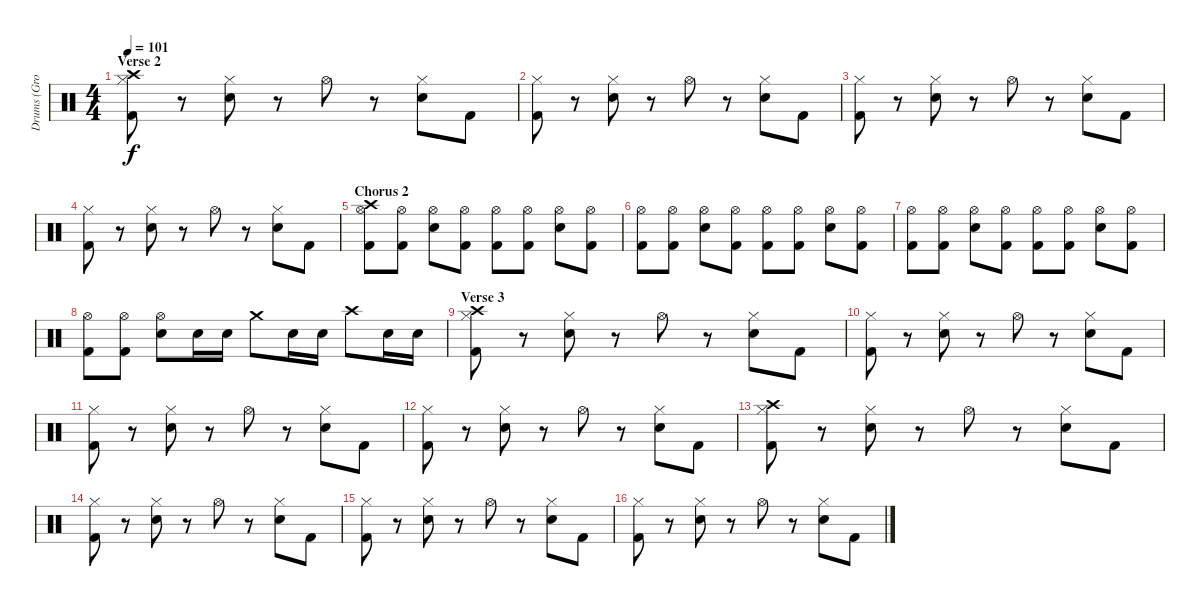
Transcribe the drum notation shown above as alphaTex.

\track ("Drums (Grohl)" "Drums (Gro") {instrument percussion}
\staff {score}
\articulation defaults
\ts (4 4)
\section ("" "Verse 2")
\tempo 101
\clef neutral
\ks c
("Hi-Hat (closed)" "Kick (hit) 2" "Crash high (hit)").8{dy f} r.8 ("Hi-Hat (closed)" "Snare (hit) 2").8 r.8 "Hi-Hat (open)".8 r.8 ("Hi-Hat (closed)" "Snare (hit) 2").8 "Kick (hit) 2".8 |
("Hi-Hat (closed)" "Kick (hit) 2").8 r.8 ("Hi-Hat (closed)" "Snare (hit) 2").8 r.8 "Hi-Hat (open)".8 r.8 ("Hi-Hat (closed)" "Snare (hit) 2").8 "Kick (hit) 2".8 |
("Hi-Hat (closed)" "Kick (hit) 2").8 r.8 ("Hi-Hat (closed)" "Snare (hit) 2").8 r.8 "Hi-Hat (open)".8 r.8 ("Hi-Hat (closed)" "Snare (hit) 2").8 "Kick (hit) 2".8 |
("Hi-Hat (closed)" "Kick (hit) 2").8 r.8 ("Hi-Hat (closed)" "Snare (hit) 2").8 r.8 "Hi-Hat (open)".8 r.8 ("Hi-Hat (closed)" "Snare (hit) 2").8 "Kick (hit) 2".8 |
\section ("" "Chorus 2")
("Hi-Hat (open)" "Kick (hit) 2" "Crash high (hit)").8 ("Hi-Hat (open)" "Kick (hit) 2").8 ("Hi-Hat (open)" "Snare (hit) 2").8 ("Hi-Hat (open)" "Kick (hit) 2").8 ("Hi-Hat (open)" "Kick (hit) 2").8 ("Hi-Hat (open)" "Kick (hit) 2").8 ("Hi-Hat (open)" "Snare (hit) 2").8 ("Hi-Hat (open)" "Kick (hit) 2").8 |
("Hi-Hat (open)" "Kick (hit) 2").8 ("Hi-Hat (open)" "Kick (hit) 2").8 ("Hi-Hat (open)" "Snare (hit) 2").8 ("Hi-Hat (open)" "Kick (hit) 2").8 ("Hi-Hat (open)" "Kick (hit) 2").8 ("Hi-Hat (open)" "Kick (hit) 2").8 ("Hi-Hat (open)" "Snare (hit) 2").8 ("Hi-Hat (open)" "Kick (hit) 2").8 |
("Hi-Hat (open)" "Kick (hit) 2").8 ("Hi-Hat (open)" "Kick (hit) 2").8 ("Hi-Hat (open)" "Snare (hit) 2").8 ("Hi-Hat (open)" "Kick (hit) 2").8 ("Hi-Hat (open)" "Kick (hit) 2").8 ("Hi-Hat (open)" "Kick (hit) 2").8 ("Hi-Hat (open)" "Snare (hit) 2").8 ("Hi-Hat (open)" "Kick (hit) 2").8 |
("Hi-Hat (open)" "Kick (hit) 2").8 ("Hi-Hat (open)" "Kick (hit) 2").8 ("Hi-Hat (open)" "Snare (hit) 2").8 "Snare (hit) 2".16 "Snare (hit) 2".16 "Crash medium (hit)".8 "Snare (hit) 2".16 "Snare (hit) 2".16 "Crash high (hit)".8 "Snare (hit) 2".16 "Snare (hit) 2".16 |
\section ("" "Verse 3")
("Hi-Hat (closed)" "Kick (hit) 2" "Crash high (hit)").8 r.8 ("Hi-Hat (closed)" "Snare (hit) 2").8 r.8 "Hi-Hat (open)".8 r.8 ("Hi-Hat (closed)" "Snare (hit) 2").8 "Kick (hit) 2".8 |
("Hi-Hat (closed)" "Kick (hit) 2").8 r.8 ("Hi-Hat (closed)" "Snare (hit) 2").8 r.8 "Hi-Hat (open)".8 r.8 ("Hi-Hat (closed)" "Snare (hit) 2").8 "Kick (hit) 2".8 |
("Hi-Hat (closed)" "Kick (hit) 2").8 r.8 ("Hi-Hat (closed)" "Snare (hit) 2").8 r.8 "Hi-Hat (open)".8 r.8 ("Hi-Hat (closed)" "Snare (hit) 2").8 "Kick (hit) 2".8 |
("Hi-Hat (closed)" "Kick (hit) 2").8 r.8 ("Hi-Hat (closed)" "Snare (hit) 2").8 r.8 "Hi-Hat (open)".8 r.8 ("Hi-Hat (closed)" "Snare (hit) 2").8 "Kick (hit) 2".8 |
("Hi-Hat (closed)" "Kick (hit) 2" "Crash high (hit)").8 r.8 ("Hi-Hat (closed)" "Snare (hit) 2").8 r.8 "Hi-Hat (open)".8 r.8 ("Hi-Hat (closed)" "Snare (hit) 2").8 "Kick (hit) 2".8 |
("Hi-Hat (closed)" "Kick (hit) 2").8 r.8 ("Hi-Hat (closed)" "Snare (hit) 2").8 r.8 "Hi-Hat (open)".8 r.8 ("Hi-Hat (closed)" "Snare (hit) 2").8 "Kick (hit) 2".8 |
("Hi-Hat (closed)" "Kick (hit) 2").8 r.8 ("Hi-Hat (closed)" "Snare (hit) 2").8 r.8 "Hi-Hat (open)".8 r.8 ("Hi-Hat (closed)" "Snare (hit) 2").8 "Kick (hit) 2".8 |
("Hi-Hat (closed)" "Kick (hit) 2").8 r.8 ("Hi-Hat (closed)" "Snare (hit) 2").8 r.8 "Hi-Hat (open)".8 r.8 ("Hi-Hat (closed)" "Snare (hit) 2").8 "Kick (hit) 2".8
